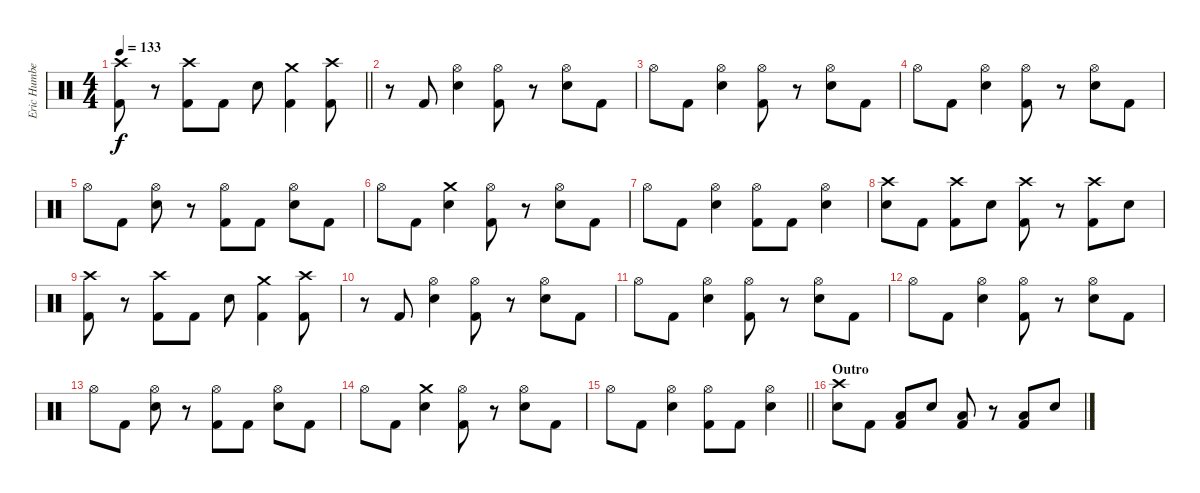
\track ("Eric Humbert (Drums)" "Eric Humbe") {instrument percussion}
\staff {score}
\articulation defaults
\ts (4 4)
\tempo 133
\clef neutral
\barLineRight lightlight
\ks c
("Crash high (hit)" "Kick (hit) 2").8{dy f} r.8 ("Crash high (hit)" "Kick (hit) 2").8 "Kick (hit) 2".8 "Electric Snare (hit)".8 ("Crash medium (hit)" "Kick (hit) 2").4 ("Crash high (hit)" "Kick (hit) 2").8 |
r.8 "Kick (hit) 2".8 ("Hi-Hat (open)" "Electric Snare (hit)").4 ("Hi-Hat (open)" "Kick (hit) 2").8 r.8 ("Hi-Hat (open)" "Electric Snare (hit)").8 "Kick (hit) 2".8 |
"Hi-Hat (open)".8 "Kick (hit) 2".8 ("Hi-Hat (open)" "Electric Snare (hit)").4 ("Hi-Hat (open)" "Kick (hit) 2").8 r.8 ("Hi-Hat (open)" "Electric Snare (hit)").8 "Kick (hit) 2".8 |
"Hi-Hat (open)".8 "Kick (hit) 2".8 ("Hi-Hat (open)" "Electric Snare (hit)").4 ("Hi-Hat (open)" "Kick (hit) 2").8 r.8 ("Hi-Hat (open)" "Electric Snare (hit)").8 "Kick (hit) 2".8 |
"Hi-Hat (open)".8 "Kick (hit) 2".8 ("Hi-Hat (open)" "Electric Snare (hit)").8 r.8 ("Hi-Hat (open)" "Kick (hit) 2").8 "Kick (hit) 2".8 ("Hi-Hat (open)" "Electric Snare (hit)").8 "Kick (hit) 2".8 |
"Hi-Hat (open)".8 "Kick (hit) 2".8 ("Crash medium (hit)" "Electric Snare (hit)").4 ("Hi-Hat (open)" "Kick (hit) 2").8 r.8 ("Hi-Hat (open)" "Electric Snare (hit)").8 "Kick (hit) 2".8 |
"Hi-Hat (open)".8 "Kick (hit) 2".8 ("Hi-Hat (open)" "Electric Snare (hit)").4 ("Hi-Hat (open)" "Kick (hit) 2").8 "Kick (hit) 2".8 ("Hi-Hat (open)" "Electric Snare (hit)").4 |
("Crash high (hit)" "Electric Snare (hit)").8 "Kick (hit) 2".8 ("Crash high (hit)" "Kick (hit) 2").8 "Electric Snare (hit)".8 ("Crash high (hit)" "Kick (hit) 2").8 r.8 ("Crash high (hit)" "Kick (hit) 2").8 "Electric Snare (hit)".8 |
("Crash high (hit)" "Kick (hit) 2").8 r.8 ("Crash high (hit)" "Kick (hit) 2").8 "Kick (hit) 2".8 "Electric Snare (hit)".8 ("Crash medium (hit)" "Kick (hit) 2").4 ("Crash high (hit)" "Kick (hit) 2").8 |
r.8 "Kick (hit) 2".8 ("Hi-Hat (open)" "Electric Snare (hit)").4 ("Hi-Hat (open)" "Kick (hit) 2").8 r.8 ("Hi-Hat (open)" "Electric Snare (hit)").8 "Kick (hit) 2".8 |
"Hi-Hat (open)".8 "Kick (hit) 2".8 ("Hi-Hat (open)" "Electric Snare (hit)").4 ("Hi-Hat (open)" "Kick (hit) 2").8 r.8 ("Hi-Hat (open)" "Electric Snare (hit)").8 "Kick (hit) 2".8 |
"Hi-Hat (open)".8 "Kick (hit) 2".8 ("Hi-Hat (open)" "Electric Snare (hit)").4 ("Hi-Hat (open)" "Kick (hit) 2").8 r.8 ("Hi-Hat (open)" "Electric Snare (hit)").8 "Kick (hit) 2".8 |
"Hi-Hat (open)".8 "Kick (hit) 2".8 ("Hi-Hat (open)" "Electric Snare (hit)").8 r.8 ("Hi-Hat (open)" "Kick (hit) 2").8 "Kick (hit) 2".8 ("Hi-Hat (open)" "Electric Snare (hit)").8 "Kick (hit) 2".8 |
"Hi-Hat (open)".8 "Kick (hit) 2".8 ("Crash medium (hit)" "Electric Snare (hit)").4 ("Hi-Hat (open)" "Kick (hit) 2").8 r.8 ("Hi-Hat (open)" "Electric Snare (hit)").8 "Kick (hit) 2".8 |
\barLineRight lightlight "Hi-Hat (open)".8 "Kick (hit) 2".8
("Hi-Hat (open)" "Electric Snare (hit)").4 ("Hi-Hat (open)" "Kick (hit) 2").8 "Kick (hit) 2".8 ("Hi-Hat (open)" "Electric Snare (hit)").4 |
\section ("" "Outro")
("Crash high (hit)" "Electric Snare (hit)").8 "Kick (hit) 2".8 ("Low Floor Tom (hit)" "Kick (hit) 2").8 "Electric Snare (hit)".8 ("Low Floor Tom (hit)" "Kick (hit) 2").8 r.8 ("Low Floor Tom (hit)" "Kick (hit) 2").8 "Electric Snare (hit)".8
